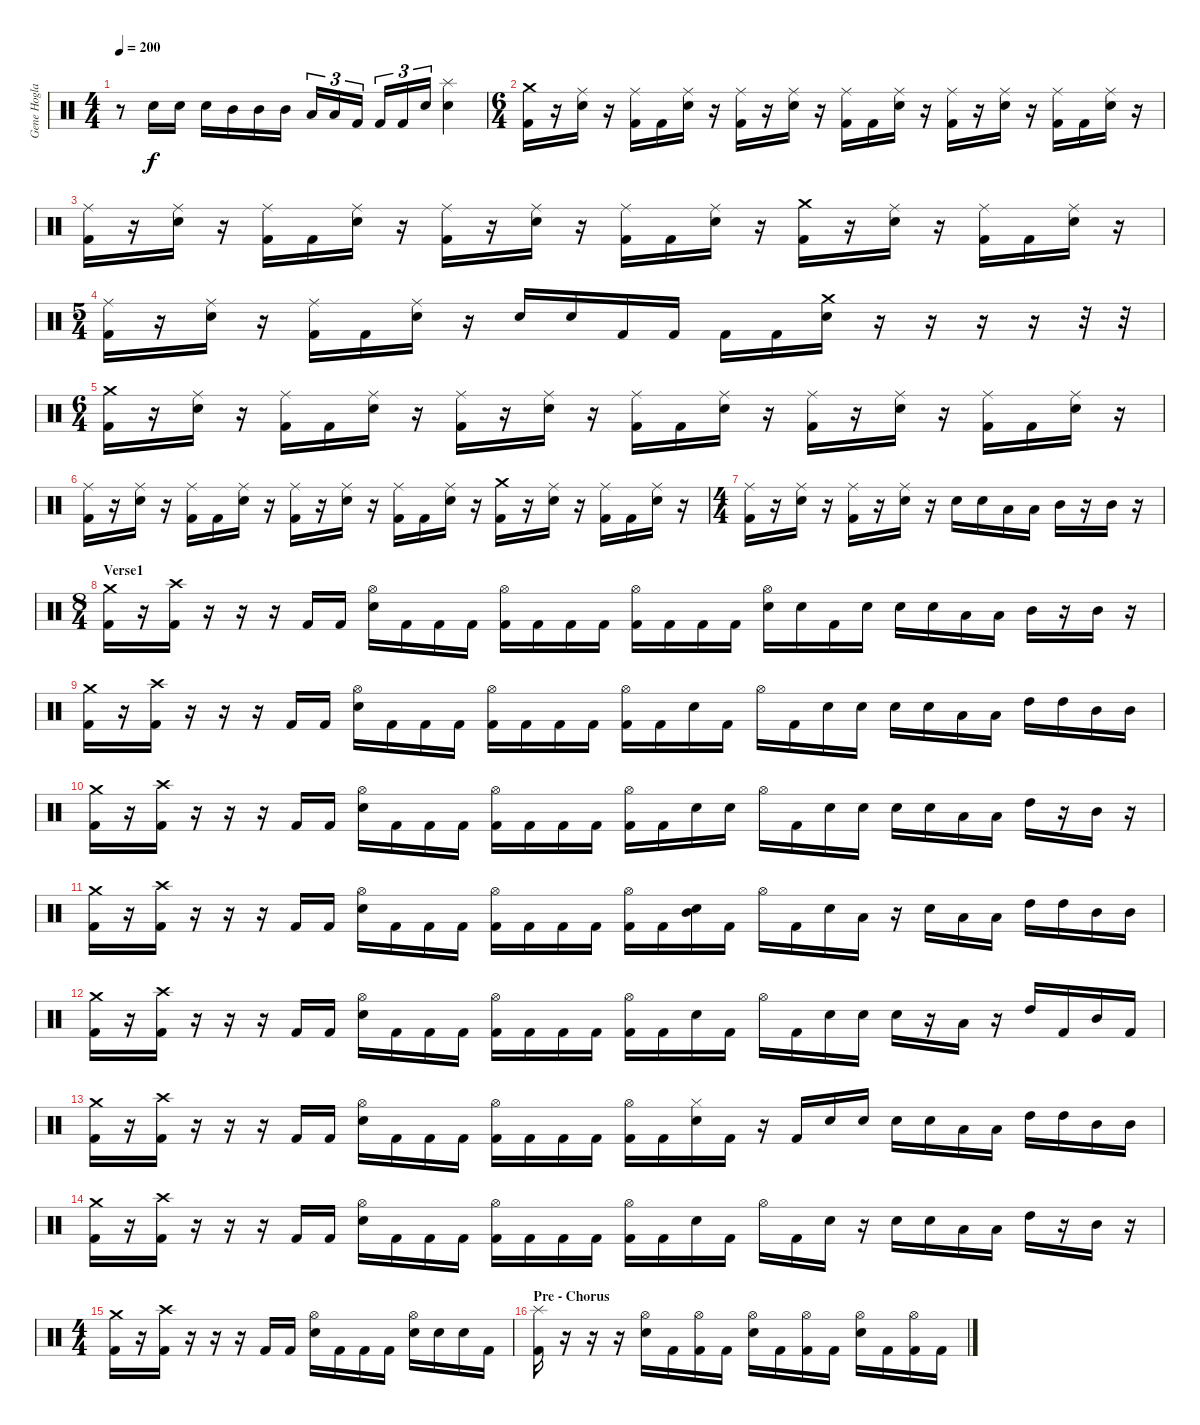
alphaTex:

\track ("Gene Hoglan" "Gene Hogla") {instrument percussion}
\staff {score}
\articulation defaults
\ts (4 4)
\tempo 200
\clef neutral
\ks c
r.8{dy f} "Electric Snare (hit)".16 "Electric Snare (hit)".16 "Electric Snare (hit)".16 "Mid Tom (hit)".16 "Mid Tom (hit)".16 "Mid Tom (hit)".16 "Low Tom (hit)".16{tu (3 2)} "Low Tom (hit)".16{tu (3 2)} "Kick (hit) 2".16{tu (3 2)} "Kick (hit) 2".16{tu (3 2)} "Kick (hit) 2".16{tu (3 2)} "Electric Snare (hit)".16{tu (3 2)} ("Splash (hit)" "Electric Snare (hit)").4 |
\ts (6 4)
("Crash medium (hit)" "Kick (hit) 2").16 r.16 ("Ride (middle)" "Electric Snare (hit)").16 r.16 ("Ride (middle)" "Kick (hit) 2").16 "Kick (hit) 2".16 ("Ride (middle)" "Electric Snare (hit)").16 r.16 ("Ride (middle)" "Kick (hit) 2").16 r.16 ("Ride (middle)" "Electric Snare (hit)").16 r.16 ("Ride (middle)" "Kick (hit) 2").16 "Kick (hit) 2".16 ("Ride (middle)" "Electric Snare (hit)").16 r.16 ("Ride (middle)" "Kick (hit) 2").16 r.16 ("Ride (middle)" "Electric Snare (hit)").16 r.16 ("Ride (middle)" "Kick (hit) 2").16 "Kick (hit) 2".16 ("Ride (middle)" "Electric Snare (hit)").16 r.16 |
("Ride (middle)" "Kick (hit) 2").16 r.16 ("Ride (middle)" "Electric Snare (hit)").16 r.16 ("Ride (middle)" "Kick (hit) 2").16 "Kick (hit) 2".16 ("Ride (middle)" "Electric Snare (hit)").16 r.16 ("Ride (middle)" "Kick (hit) 2").16 r.16 ("Ride (middle)" "Electric Snare (hit)").16 r.16 ("Ride (middle)" "Kick (hit) 2").16 "Kick (hit) 2".16 ("Ride (middle)" "Electric Snare (hit)").16 r.16 ("Crash medium (hit)" "Kick (hit) 2").16 r.16 ("Ride (middle)" "Electric Snare (hit)").16 r.16 ("Ride (middle)" "Kick (hit) 2").16 "Kick (hit) 2".16 ("Ride (middle)" "Electric Snare (hit)").16 r.16 |
\ts (5 4)
("Ride (middle)" "Kick (hit) 2").16 r.16 ("Ride (middle)" "Electric Snare (hit)").16 r.16 ("Ride (middle)" "Kick (hit) 2").16 "Kick (hit) 2".16 ("Ride (middle)" "Electric Snare (hit)").16 r.16 "Electric Snare (hit)".16 "Electric Snare (hit)".16 "Kick (hit) 2".16 "Kick (hit) 2".16 "Kick (hit) 2".16 "Kick (hit) 2".16 ("Crash medium (hit)" "Electric Snare (hit)").16 r.16 r.16 r.16 r.16 r.32 r.32 |
\ts (6 4)
("Crash medium (hit)" "Kick (hit) 2").16 r.16 ("Ride (middle)" "Electric Snare (hit)").16 r.16 ("Ride (middle)" "Kick (hit) 2").16 "Kick (hit) 2".16 ("Ride (middle)" "Electric Snare (hit)").16 r.16 ("Ride (middle)" "Kick (hit) 2").16 r.16 ("Ride (middle)" "Electric Snare (hit)").16 r.16 ("Ride (middle)" "Kick (hit) 2").16 "Kick (hit) 2".16 ("Ride (middle)" "Electric Snare (hit)").16 r.16 ("Ride (middle)" "Kick (hit) 2").16 r.16 ("Ride (middle)" "Electric Snare (hit)").16 r.16 ("Ride (middle)" "Kick (hit) 2").16 "Kick (hit) 2".16 ("Ride (middle)" "Electric Snare (hit)").16 r.16 |
("Ride (middle)" "Kick (hit) 2").16 r.16 ("Ride (middle)" "Electric Snare (hit)").16 r.16 ("Ride (middle)" "Kick (hit) 2").16 "Kick (hit) 2".16 ("Ride (middle)" "Electric Snare (hit)").16 r.16 ("Ride (middle)" "Kick (hit) 2").16 r.16 ("Ride (middle)" "Electric Snare (hit)").16 r.16 ("Ride (middle)" "Kick (hit) 2").16 "Kick (hit) 2".16 ("Ride (middle)" "Electric Snare (hit)").16 r.16 ("Crash medium (hit)" "Kick (hit) 2").16 r.16 ("Ride (middle)" "Electric Snare (hit)").16 r.16 ("Ride (middle)" "Kick (hit) 2").16 "Kick (hit) 2".16 ("Ride (middle)" "Electric Snare (hit)").16 r.16 |
\ts (4 4)
("Ride (middle)" "Kick (hit) 2").16 r.16 ("Ride (middle)" "Electric Snare (hit)").16 r.16 ("Ride (middle)" "Kick (hit) 2").16 r.16 ("Ride (middle)" "Electric Snare (hit)").16 r.16 "Electric Snare (hit)".16 "Electric Snare (hit)".16 "Low Tom (hit)".16 "Low Tom (hit)".16 "Mid Tom (hit)".16 r.16 "Mid Tom (hit)".16 r.16 |
\ts (8 4)
\section ("" "Verse1")
("Crash medium (hit)" "Kick (hit) 2").16 r.16 ("Crash high (hit)" "Kick (hit) 2").16 r.16 r.16 r.16 "Kick (hit) 2".16 "Kick (hit) 2".16 ("Hi-Hat (open)" "Electric Snare (hit)").16 "Kick (hit) 2".16 "Kick (hit) 2".16 "Kick (hit) 2".16 ("Hi-Hat (open)" "Kick (hit) 2").16 "Kick (hit) 2".16 "Kick (hit) 2".16 "Kick (hit) 2".16 ("Hi-Hat (open)" "Kick (hit) 2").16 "Kick (hit) 2".16 "Kick (hit) 2".16 "Kick (hit) 2".16 ("Hi-Hat (open)" "Electric Snare (hit)").16 "Electric Snare (hit)".16 "Kick (hit) 2".16 "Electric Snare (hit)".16 "Electric Snare (hit)".16 "Electric Snare (hit)".16 "Low Tom (hit)".16 "Low Tom (hit)".16 "Mid Tom (hit)".16 r.16 "Mid Tom (hit)".16 r.16 |
("Crash medium (hit)" "Kick (hit) 2").16 r.16 ("Crash high (hit)" "Kick (hit) 2").16 r.16 r.16 r.16 "Kick (hit) 2".16 "Kick (hit) 2".16 ("Hi-Hat (open)" "Electric Snare (hit)").16 "Kick (hit) 2".16 "Kick (hit) 2".16 "Kick (hit) 2".16 ("Hi-Hat (open)" "Kick (hit) 2").16 "Kick (hit) 2".16 "Kick (hit) 2".16 "Kick (hit) 2".16 ("Hi-Hat (open)" "Kick (hit) 2").16 "Kick (hit) 2".16 "Electric Snare (hit)".16 "Kick (hit) 2".16 "Hi-Hat (open)".16 "Kick (hit) 2".16 "Electric Snare (hit)".16 "Electric Snare (hit)".16 "Electric Snare (hit)".16 "Electric Snare (hit)".16 "Low Tom (hit)".16 "Low Tom (hit)".16 "High Tom (hit)".16 "High Tom (hit)".16 "Mid Tom (hit)".16 "Mid Tom (hit)".16 |
("Crash medium (hit)" "Kick (hit) 2").16 r.16 ("Crash high (hit)" "Kick (hit) 2").16 r.16 r.16 r.16 "Kick (hit) 2".16 "Kick (hit) 2".16 ("Hi-Hat (open)" "Electric Snare (hit)").16 "Kick (hit) 2".16 "Kick (hit) 2".16 "Kick (hit) 2".16 ("Hi-Hat (open)" "Kick (hit) 2").16 "Kick (hit) 2".16 "Kick (hit) 2".16 "Kick (hit) 2".16 ("Hi-Hat (open)" "Kick (hit) 2").16 "Kick (hit) 2".16 "Electric Snare (hit)".16 "Electric Snare (hit)".16 "Hi-Hat (open)".16 "Kick (hit) 2".16 "Electric Snare (hit)".16 "Electric Snare (hit)".16 "Electric Snare (hit)".16 "Electric Snare (hit)".16 "Low Tom (hit)".16 "Low Tom (hit)".16 "High Tom (hit)".16 r.16 "Mid Tom (hit)".16 r.16 |
("Crash medium (hit)" "Kick (hit) 2").16 r.16 ("Crash high (hit)" "Kick (hit) 2").16 r.16 r.16 r.16 "Kick (hit) 2".16 "Kick (hit) 2".16 ("Hi-Hat (open)" "Electric Snare (hit)").16 "Kick (hit) 2".16 "Kick (hit) 2".16 "Kick (hit) 2".16 ("Hi-Hat (open)" "Kick (hit) 2").16 "Kick (hit) 2".16 "Kick (hit) 2".16 "Kick (hit) 2".16 ("Hi-Hat (open)" "Kick (hit) 2").16 "Kick (hit) 2".16 ("Mid Tom (hit)" "Electric Snare (hit)").16 "Kick (hit) 2".16 "Hi-Hat (open)".16 "Kick (hit) 2".16 "Electric Snare (hit)".16 "Low Tom (hit)".16 r.16 "Electric Snare (hit)".16 "Low Tom (hit)".16 "Low Tom (hit)".16 "High Tom (hit)".16 "High Tom (hit)".16 "Mid Tom (hit)".16 "Mid Tom (hit)".16 |
("Crash medium (hit)" "Kick (hit) 2").16 r.16 ("Crash high (hit)" "Kick (hit) 2").16 r.16 r.16 r.16 "Kick (hit) 2".16 "Kick (hit) 2".16 ("Hi-Hat (open)" "Electric Snare (hit)").16 "Kick (hit) 2".16 "Kick (hit) 2".16 "Kick (hit) 2".16 ("Hi-Hat (open)" "Kick (hit) 2").16 "Kick (hit) 2".16 "Kick (hit) 2".16 "Kick (hit) 2".16 ("Hi-Hat (open)" "Kick (hit) 2").16 "Kick (hit) 2".16 "Electric Snare (hit)".16 "Kick (hit) 2".16 "Hi-Hat (open)".16 "Kick (hit) 2".16 "Electric Snare (hit)".16 "Electric Snare (hit)".16 "Electric Snare (hit)".16 r.16 "Low Tom (hit)".16 r.16 "High Tom (hit)".16 "Kick (hit) 2".16 "Mid Tom (hit)".16 "Kick (hit) 2".16 |
("Crash medium (hit)" "Kick (hit) 2").16 r.16 ("Crash high (hit)" "Kick (hit) 2").16 r.16 r.16 r.16 "Kick (hit) 2".16 "Kick (hit) 2".16 ("Hi-Hat (open)" "Electric Snare (hit)").16 "Kick (hit) 2".16 "Kick (hit) 2".16 "Kick (hit) 2".16 ("Hi-Hat (open)" "Kick (hit) 2").16 "Kick (hit) 2".16 "Kick (hit) 2".16 "Kick (hit) 2".16 ("Hi-Hat (open)" "Kick (hit) 2").16 "Kick (hit) 2".16 ("Hi-Hat (closed)" "Electric Snare (hit)").16 "Kick (hit) 2".16 r.16 "Kick (hit) 2".16 "Electric Snare (hit)".16 "Electric Snare (hit)".16 "Electric Snare (hit)".16 "Electric Snare (hit)".16 "Low Tom (hit)".16 "Low Tom (hit)".16 "High Tom (hit)".16 "High Tom (hit)".16 "Mid Tom (hit)".16 "Mid Tom (hit)".16 |
("Crash medium (hit)" "Kick (hit) 2").16 r.16 ("Crash high (hit)" "Kick (hit) 2").16 r.16 r.16 r.16 "Kick (hit) 2".16 "Kick (hit) 2".16 ("Hi-Hat (open)" "Electric Snare (hit)").16 "Kick (hit) 2".16 "Kick (hit) 2".16 "Kick (hit) 2".16 ("Hi-Hat (open)" "Kick (hit) 2").16 "Kick (hit) 2".16 "Kick (hit) 2".16 "Kick (hit) 2".16 ("Hi-Hat (open)" "Kick (hit) 2").16 "Kick (hit) 2".16 "Electric Snare (hit)".16 "Kick (hit) 2".16 "Hi-Hat (open)".16 "Kick (hit) 2".16 "Electric Snare (hit)".16 r.16 "Electric Snare (hit)".16 "Electric Snare (hit)".16 "Low Tom (hit)".16 "Low Tom (hit)".16 "High Tom (hit)".16 r.16 "Mid Tom (hit)".16 r.16 |
\ts (4 4)
("Crash medium (hit)" "Kick (hit) 2").16 r.16 ("Crash high (hit)" "Kick (hit) 2").16 r.16 r.16 r.16 "Kick (hit) 2".16 "Kick (hit) 2".16 ("Hi-Hat (open)" "Electric Snare (hit)").16 "Kick (hit) 2".16 "Kick (hit) 2".16 "Kick (hit) 2".16 ("Hi-Hat (open)" "Electric Snare (hit)").16 "Electric Snare (hit)".16 "Electric Snare (hit)".16 "Kick (hit) 2".16 |
\section ("" "Pre - Chorus")
("Splash (hit)" "Kick (hit) 2").16 r.16 r.16 r.16 ("Hi-Hat (open)" "Electric Snare (hit)").16 "Kick (hit) 2".16 ("Hi-Hat (open)" "Kick (hit) 2").16 "Kick (hit) 2".16 ("Hi-Hat (open)" "Electric Snare (hit)").16 "Kick (hit) 2".16 ("Hi-Hat (open)" "Kick (hit) 2").16 "Kick (hit) 2".16 ("Hi-Hat (open)" "Electric Snare (hit)").16 "Kick (hit) 2".16 ("Hi-Hat (open)" "Kick (hit) 2").16 "Kick (hit) 2".16
